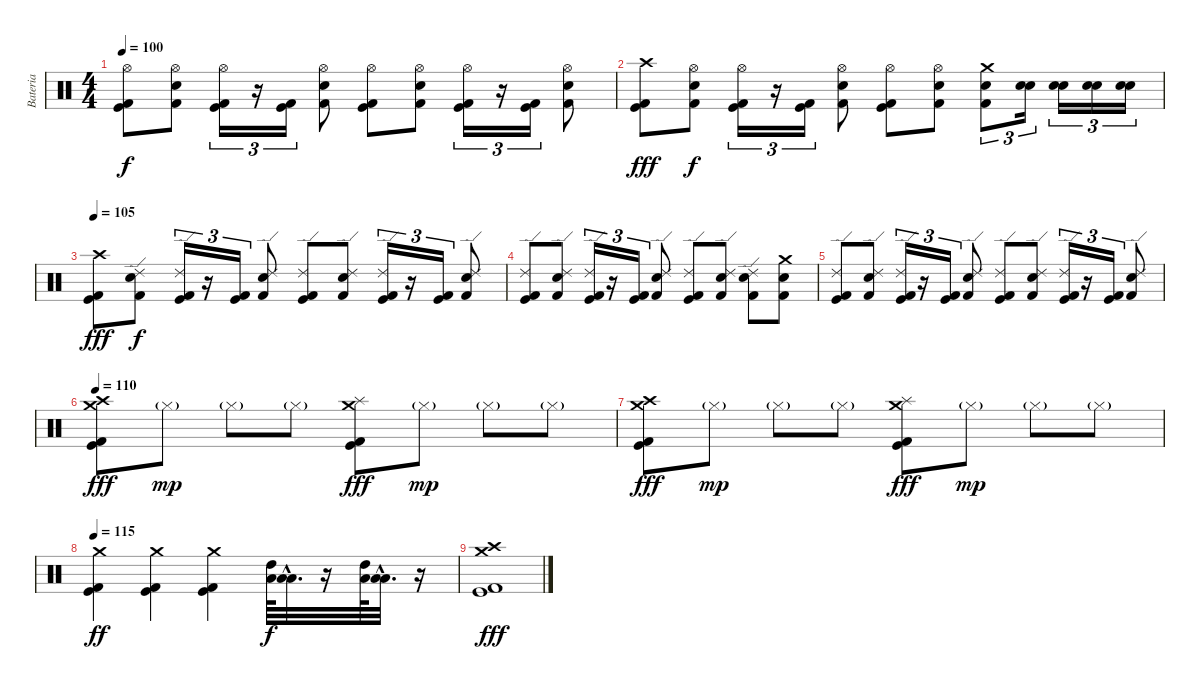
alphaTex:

\track ("Bateria" "Bateria") {instrument percussion}
\staff {score}
\articulation defaults
\ts (4 4)
\tempo 100
\clef neutral
\ks c
("Hi-Hat (open)" "Kick (hit) 2" "Kick (hit)").8{dy f} ("Hi-Hat (open)" "Electric Snare (hit)" "Kick (hit) 2").8 ("Hi-Hat (open)" "Kick (hit) 2" "Kick (hit)").16{tu (3 2)} r.16{tu (3 2)} ("Kick (hit) 2" "Kick (hit)").16{tu (3 2)} ("Hi-Hat (open)" "Electric Snare (hit)" "Kick (hit) 2").8 ("Hi-Hat (open)" "Kick (hit) 2" "Kick (hit)").8 ("Hi-Hat (open)" "Electric Snare (hit)" "Kick (hit) 2").8 ("Hi-Hat (open)" "Kick (hit) 2" "Kick (hit)").16{tu (3 2)} r.16{tu (3 2)} ("Kick (hit) 2" "Kick (hit)").16{tu (3 2)} ("Hi-Hat (open)" "Electric Snare (hit)" "Kick (hit) 2").8 |
("Crash high (hit)" "Kick (hit) 2" "Kick (hit)").8{dy fff} ("Hi-Hat (open)" "Electric Snare (hit)" "Kick (hit) 2").8{dy f} ("Hi-Hat (open)" "Kick (hit) 2" "Kick (hit)").16{tu (3 2)} r.16{tu (3 2)} ("Kick (hit) 2" "Kick (hit)").16{tu (3 2)} ("Hi-Hat (open)" "Electric Snare (hit)" "Kick (hit) 2").8 ("Hi-Hat (open)" "Kick (hit) 2" "Kick (hit)").8 ("Hi-Hat (open)" "Electric Snare (hit)" "Kick (hit) 2").8 ("Crash medium (hit)" "Electric Snare (hit)" "Kick (hit) 2").8{tu (3 2)} ("Electric Snare (hit)" "Snare (hit) 2").16{tu (3 2)} ("Electric Snare (hit)" "Snare (hit) 2").16{tu (3 2)} ("Electric Snare (hit)" "Snare (hit) 2").16{tu (3 2)} ("Electric Snare (hit)" "Snare (hit) 2").16{tu (3 2)} |
\tempo 105
("Crash high (hit)" "Kick (hit) 2" "Kick (hit)").8{dy fff} ("Ride (edge) 2" "Electric Snare (hit)" "Kick (hit) 2").8{dy f} ("Ride (edge) 2" "Kick (hit) 2" "Kick (hit)").16{tu (3 2)} r.16{tu (3 2)} ("Kick (hit) 2" "Kick (hit)").16{tu (3 2)} ("Ride (edge) 2" "Electric Snare (hit)" "Kick (hit) 2").8 ("Ride (edge) 2" "Kick (hit) 2" "Kick (hit)").8 ("Ride (edge) 2" "Electric Snare (hit)" "Kick (hit) 2").8 ("Ride (edge) 2" "Kick (hit) 2" "Kick (hit)").16{tu (3 2)} r.16{tu (3 2)} ("Kick (hit) 2" "Kick (hit)").16{tu (3 2)} ("Ride (edge) 2" "Electric Snare (hit)" "Kick (hit) 2").8 |
("Ride (edge) 2" "Kick (hit) 2" "Kick (hit)").8 ("Ride (edge) 2" "Electric Snare (hit)" "Kick (hit) 2").8 ("Ride (edge) 2" "Kick (hit) 2" "Kick (hit)").16{tu (3 2)} r.16{tu (3 2)} ("Kick (hit) 2" "Kick (hit)").16{tu (3 2)} ("Ride (edge) 2" "Electric Snare (hit)" "Kick (hit) 2").8 ("Ride (edge) 2" "Kick (hit) 2" "Kick (hit)").8 ("Ride (edge) 2" "Electric Snare (hit)" "Kick (hit) 2").8 ("Ride (edge) 2" "Electric Snare (hit)" "Kick (hit) 2").8 ("Crash medium (hit)" "Electric Snare (hit)" "Kick (hit) 2").8 |
("Ride (edge) 2" "Kick (hit) 2" "Kick (hit)").8 ("Ride (edge) 2" "Electric Snare (hit)" "Kick (hit) 2").8 ("Ride (edge) 2" "Kick (hit) 2" "Kick (hit)").16{tu (3 2)} r.16{tu (3 2)} ("Kick (hit) 2" "Kick (hit)").16{tu (3 2)} ("Ride (edge) 2" "Electric Snare (hit)" "Kick (hit) 2").8 ("Ride (edge) 2" "Kick (hit) 2" "Kick (hit)").8 ("Ride (edge) 2" "Electric Snare (hit)" "Kick (hit) 2").8 ("Ride (edge) 2" "Kick (hit) 2" "Kick (hit)").16{tu (3 2)} r.16{tu (3 2)} ("Kick (hit) 2" "Kick (hit)").16{tu (3 2)} ("Ride (edge) 2" "Electric Snare (hit)" "Kick (hit) 2").8 |
\tempo 110
("Crash high (hit)" "Crash medium (hit)" "Kick (hit) 2" "Kick (hit)").8{dy fff} "Hi-Hat (closed)"{g}.8{dy mp} "Hi-Hat (closed)"{g}.8 "Hi-Hat (closed)"{g}.8 ("Crash medium (hit)" "Splash (hit)" "Kick (hit) 2" "Kick (hit)").8{dy fff} "Hi-Hat (closed)"{g}.8{dy mp} "Hi-Hat (closed)"{g}.8 "Hi-Hat (closed)"{g}.8 |
("Crash high (hit)" "Crash medium (hit)" "Kick (hit) 2" "Kick (hit)").8{dy fff} "Hi-Hat (closed)"{g}.8{dy mp} "Hi-Hat (closed)"{g}.8 "Hi-Hat (closed)"{g}.8 ("Crash medium (hit)" "Splash (hit)" "Kick (hit) 2" "Kick (hit)").8{dy fff} "Hi-Hat (closed)"{g}.8{dy mp} "Hi-Hat (closed)"{g}.8 "Hi-Hat (closed)"{g}.8 |
\tempo 115
("Crash medium (hit)" "Kick (hit) 2" "Kick (hit)").4{dy ff} ("Crash medium (hit)" "Kick (hit) 2" "Kick (hit)").4 ("Crash medium (hit)" "Kick (hit) 2" "Kick (hit)").4 ("High Tom (hit)" "Low Tom (hit)").64{dy f} ("Low Tom (hit)"{hac} "Low Floor Tom (hit)"{hac}).32{d} r.16 ("High Tom (hit)" "Low Tom (hit)").64 ("Low Tom (hit)"{hac} "Low Floor Tom (hit)"{hac}).32{d} r.16 |
("Crash high (hit)" "Crash medium (hit)" "Kick (hit) 2" "Kick (hit)").1{dy fff}
